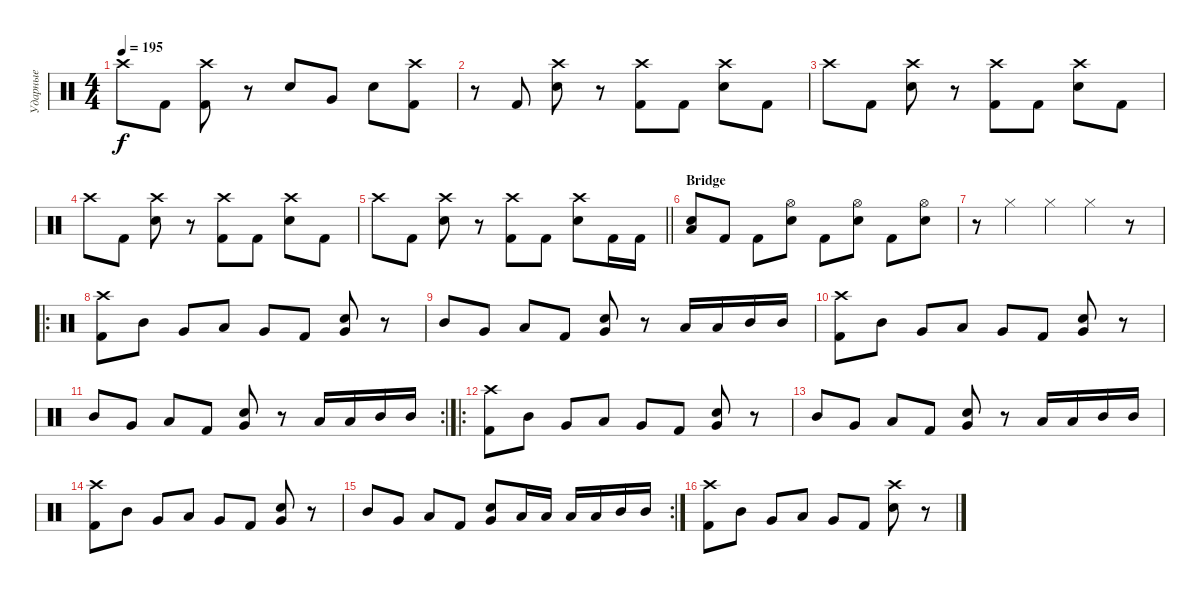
\track ("Ударные" "Ударные") {instrument percussion}
\staff {score}
\articulation defaults
\ts (4 4)
\tempo 195
\clef neutral
\ks c "Crash high (hit)".8{dy f} "Kick (hit) 2".8
("Crash high (hit)" "Kick (hit) 2").8 r.8 "Electric Snare (hit)".8 "Very Low Tom (hit)".8 "Electric Snare (hit)".8 ("Crash high (hit)" "Kick (hit) 2").8 |
r.8 "Kick (hit) 2".8 ("Crash high (hit)" "Electric Snare (hit)").8 r.8 ("Crash high (hit)" "Kick (hit) 2").8 "Kick (hit) 2".8 ("Crash high (hit)" "Electric Snare (hit)").8 "Kick (hit) 2".8 |
"Crash high (hit)".8 "Kick (hit) 2".8 ("Crash high (hit)" "Electric Snare (hit)").8 r.8 ("Crash high (hit)" "Kick (hit) 2").8 "Kick (hit) 2".8 ("Crash high (hit)" "Electric Snare (hit)").8 "Kick (hit) 2".8 |
"Crash high (hit)".8 "Kick (hit) 2".8 ("Crash high (hit)" "Electric Snare (hit)").8 r.8 ("Crash high (hit)" "Kick (hit) 2").8 "Kick (hit) 2".8 ("Crash high (hit)" "Electric Snare (hit)").8 "Kick (hit) 2".8 |
\barLineRight lightlight "Crash high (hit)".8 "Kick (hit) 2".8
("Crash high (hit)" "Electric Snare (hit)").8 r.8 ("Crash high (hit)" "Kick (hit) 2").8 "Kick (hit) 2".8 ("Crash high (hit)" "Electric Snare (hit)").8 "Kick (hit) 2".16 "Kick (hit) 2".16 |
\section ("" "Bridge")
("Low Floor Tom (hit)" "Electric Snare (hit)").8 "Kick (hit) 2".8 "Kick (hit) 2".8 ("Hi-Hat (open)" "Electric Snare (hit)").8 "Kick (hit) 2".8 ("Hi-Hat (open)" "Electric Snare (hit)").8 "Kick (hit) 2".8 ("Hi-Hat (open)" "Electric Snare (hit)").8 |
r.8 "Hi-Hat (closed)".4 "Hi-Hat (closed)".4 "Hi-Hat (closed)".4 r.8 |
\ro
("Crash high (hit)" "Kick (hit) 2").8 "Mid Tom (hit)".8 "Very Low Tom (hit)".8 "Low Tom (hit)".8 "Very Low Tom (hit)".8 "Kick (hit) 2".8 ("Very Low Tom (hit)" "Electric Snare (hit)").8 r.8 |
"Mid Tom (hit)".8 "Very Low Tom (hit)".8 "Low Tom (hit)".8 "Kick (hit) 2".8 ("Very Low Tom (hit)" "Electric Snare (hit)").8 r.8 "Low Tom (hit)".16 "Low Tom (hit)".16 "Mid Tom (hit)".16 "Mid Tom (hit)".16 |
("Crash high (hit)" "Kick (hit) 2").8 "Mid Tom (hit)".8 "Very Low Tom (hit)".8 "Low Tom (hit)".8 "Very Low Tom (hit)".8 "Kick (hit) 2".8 ("Very Low Tom (hit)" "Electric Snare (hit)").8 r.8 |
\rc 2 "Mid Tom (hit)".8 "Very Low Tom (hit)".8 "Low Tom (hit)".8 "Kick (hit) 2".8
("Very Low Tom (hit)" "Electric Snare (hit)").8 r.8 "Low Tom (hit)".16 "Low Tom (hit)".16 "Mid Tom (hit)".16 "Mid Tom (hit)".16 |
\ro
("Crash high (hit)" "Kick (hit) 2").8 "Mid Tom (hit)".8 "Very Low Tom (hit)".8 "Low Tom (hit)".8 "Very Low Tom (hit)".8 "Kick (hit) 2".8 ("Very Low Tom (hit)" "Electric Snare (hit)").8 r.8 |
"Mid Tom (hit)".8 "Very Low Tom (hit)".8 "Low Tom (hit)".8 "Kick (hit) 2".8 ("Very Low Tom (hit)" "Electric Snare (hit)").8 r.8 "Low Tom (hit)".16 "Low Tom (hit)".16 "Mid Tom (hit)".16 "Mid Tom (hit)".16 |
("Crash high (hit)" "Kick (hit) 2").8 "Mid Tom (hit)".8 "Very Low Tom (hit)".8 "Low Tom (hit)".8 "Very Low Tom (hit)".8 "Kick (hit) 2".8 ("Very Low Tom (hit)" "Electric Snare (hit)").8 r.8 |
\rc 2 "Mid Tom (hit)".8 "Very Low Tom (hit)".8 "Low Tom (hit)".8 "Kick (hit) 2".8
("Very Low Tom (hit)" "Electric Snare (hit)").8 "Low Tom (hit)".16 "Low Tom (hit)".16 "Low Tom (hit)".16 "Low Tom (hit)".16 "Mid Tom (hit)".16 "Mid Tom (hit)".16 |
("Crash high (hit)" "Kick (hit) 2").8 "Mid Tom (hit)".8 "Very Low Tom (hit)".8 "Low Tom (hit)".8 "Very Low Tom (hit)".8 "Kick (hit) 2".8 ("Crash high (hit)" "Electric Snare (hit)").8 r.8
